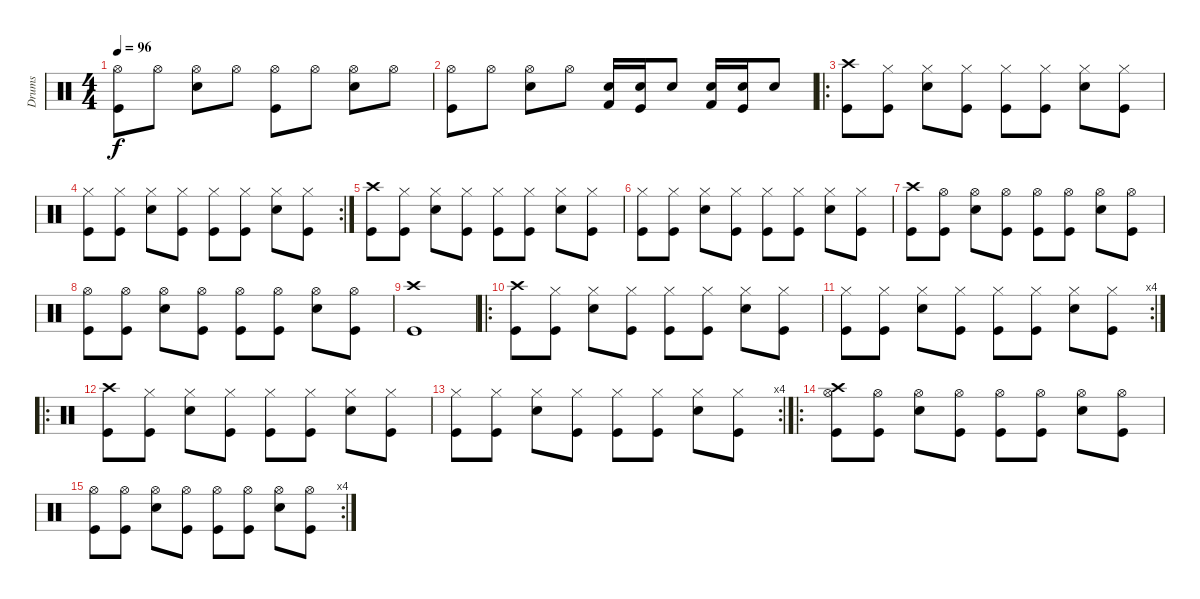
\track ("Drums" "Drums") {instrument percussion}
\staff {score}
\articulation defaults
\ts (4 4)
\tempo 96
\clef neutral
\ks c
("Hi-Hat (open)" "Kick (hit)").8{dy f} "Hi-Hat (open)".8 ("Snare (hit) 2" "Hi-Hat (open)").8 "Hi-Hat (open)".8 ("Hi-Hat (open)" "Kick (hit)").8 "Hi-Hat (open)".8 ("Snare (hit) 2" "Hi-Hat (open)").8 "Hi-Hat (open)".8 |
("Hi-Hat (open)" "Kick (hit)").8 "Hi-Hat (open)".8 ("Snare (hit) 2" "Hi-Hat (open)").8 "Hi-Hat (open)".8 ("Snare (hit) 2" "Kick (hit) 2").16 ("Snare (hit) 2" "Kick (hit)").16 "Snare (hit) 2".8 ("Snare (hit) 2" "Kick (hit) 2").16 ("Snare (hit) 2" "Kick (hit)").16 "Snare (hit) 2".8 |
\ro
("Crash high (hit)" "Kick (hit)").8 ("Hi-Hat (closed)" "Kick (hit)").8 ("Electric Snare (hit)" "Hi-Hat (closed)").8 ("Hi-Hat (closed)" "Kick (hit)").8 ("Hi-Hat (closed)" "Kick (hit)").8 ("Hi-Hat (closed)" "Kick (hit)").8 ("Electric Snare (hit)" "Hi-Hat (closed)").8 ("Hi-Hat (closed)" "Kick (hit)").8 |
\rc 2
("Hi-Hat (closed)" "Kick (hit)").8 ("Hi-Hat (closed)" "Kick (hit)").8 ("Electric Snare (hit)" "Hi-Hat (closed)").8 ("Hi-Hat (closed)" "Kick (hit)").8 ("Hi-Hat (closed)" "Kick (hit)").8 ("Hi-Hat (closed)" "Kick (hit)").8 ("Electric Snare (hit)" "Hi-Hat (closed)").8 ("Hi-Hat (closed)" "Kick (hit)").8 |
("Crash high (hit)" "Kick (hit)").8 ("Hi-Hat (closed)" "Kick (hit)").8 ("Electric Snare (hit)" "Hi-Hat (closed)").8 ("Hi-Hat (closed)" "Kick (hit)").8 ("Hi-Hat (closed)" "Kick (hit)").8 ("Hi-Hat (closed)" "Kick (hit)").8 ("Electric Snare (hit)" "Hi-Hat (closed)").8 ("Hi-Hat (closed)" "Kick (hit)").8 |
("Hi-Hat (closed)" "Kick (hit)").8 ("Hi-Hat (closed)" "Kick (hit)").8 ("Electric Snare (hit)" "Hi-Hat (closed)").8 ("Hi-Hat (closed)" "Kick (hit)").8 ("Hi-Hat (closed)" "Kick (hit)").8 ("Hi-Hat (closed)" "Kick (hit)").8 ("Electric Snare (hit)" "Hi-Hat (closed)").8 ("Hi-Hat (closed)" "Kick (hit)").8 |
("Crash high (hit)" "Kick (hit)").8 ("Hi-Hat (open)" "Kick (hit)").8 ("Electric Snare (hit)" "Hi-Hat (open)").8 ("Hi-Hat (open)" "Kick (hit)").8 ("Hi-Hat (open)" "Kick (hit)").8 ("Hi-Hat (open)" "Kick (hit)").8 ("Electric Snare (hit)" "Hi-Hat (open)").8 ("Hi-Hat (open)" "Kick (hit)").8 |
("Hi-Hat (open)" "Kick (hit)").8 ("Hi-Hat (open)" "Kick (hit)").8 ("Electric Snare (hit)" "Hi-Hat (open)").8 ("Hi-Hat (open)" "Kick (hit)").8 ("Hi-Hat (open)" "Kick (hit)").8 ("Hi-Hat (open)" "Kick (hit)").8 ("Electric Snare (hit)" "Hi-Hat (open)").8 ("Hi-Hat (open)" "Kick (hit)").8 |
("Crash high (hit)" "Kick (hit)").1 |
\ro
("Crash high (hit)" "Kick (hit)").8 ("Hi-Hat (closed)" "Kick (hit)").8 ("Electric Snare (hit)" "Hi-Hat (closed)").8 ("Hi-Hat (closed)" "Kick (hit)").8 ("Hi-Hat (closed)" "Kick (hit)").8 ("Hi-Hat (closed)" "Kick (hit)").8 ("Electric Snare (hit)" "Hi-Hat (closed)").8 ("Hi-Hat (closed)" "Kick (hit)").8 |
\rc 4
("Hi-Hat (closed)" "Kick (hit)").8 ("Hi-Hat (closed)" "Kick (hit)").8 ("Electric Snare (hit)" "Hi-Hat (closed)").8 ("Hi-Hat (closed)" "Kick (hit)").8 ("Hi-Hat (closed)" "Kick (hit)").8 ("Hi-Hat (closed)" "Kick (hit)").8 ("Electric Snare (hit)" "Hi-Hat (closed)").8 ("Hi-Hat (closed)" "Kick (hit)").8 |
\ro
("Crash high (hit)" "Kick (hit)").8 ("Hi-Hat (closed)" "Kick (hit)").8 ("Electric Snare (hit)" "Hi-Hat (closed)").8 ("Hi-Hat (closed)" "Kick (hit)").8 ("Hi-Hat (closed)" "Kick (hit)").8 ("Hi-Hat (closed)" "Kick (hit)").8 ("Electric Snare (hit)" "Hi-Hat (closed)").8 ("Hi-Hat (closed)" "Kick (hit)").8 |
\rc 4
("Hi-Hat (closed)" "Kick (hit)").8 ("Hi-Hat (closed)" "Kick (hit)").8 ("Electric Snare (hit)" "Hi-Hat (closed)").8 ("Hi-Hat (closed)" "Kick (hit)").8 ("Hi-Hat (closed)" "Kick (hit)").8 ("Hi-Hat (closed)" "Kick (hit)").8 ("Electric Snare (hit)" "Hi-Hat (closed)").8 ("Hi-Hat (closed)" "Kick (hit)").8 |
\ro
("Crash high (hit)" "Hi-Hat (open)" "Kick (hit)").8 ("Hi-Hat (open)" "Kick (hit)").8 ("Electric Snare (hit)" "Hi-Hat (open)").8 ("Hi-Hat (open)" "Kick (hit)").8 ("Hi-Hat (open)" "Kick (hit)").8 ("Hi-Hat (open)" "Kick (hit)").8 ("Electric Snare (hit)" "Hi-Hat (open)").8 ("Hi-Hat (open)" "Kick (hit)").8 |
\rc 4
("Hi-Hat (open)" "Kick (hit)").8 ("Hi-Hat (open)" "Kick (hit)").8 ("Electric Snare (hit)" "Hi-Hat (open)").8 ("Hi-Hat (open)" "Kick (hit)").8 ("Hi-Hat (open)" "Kick (hit)").8 ("Hi-Hat (open)" "Kick (hit)").8 ("Electric Snare (hit)" "Hi-Hat (open)").8 ("Hi-Hat (open)" "Kick (hit)").8
